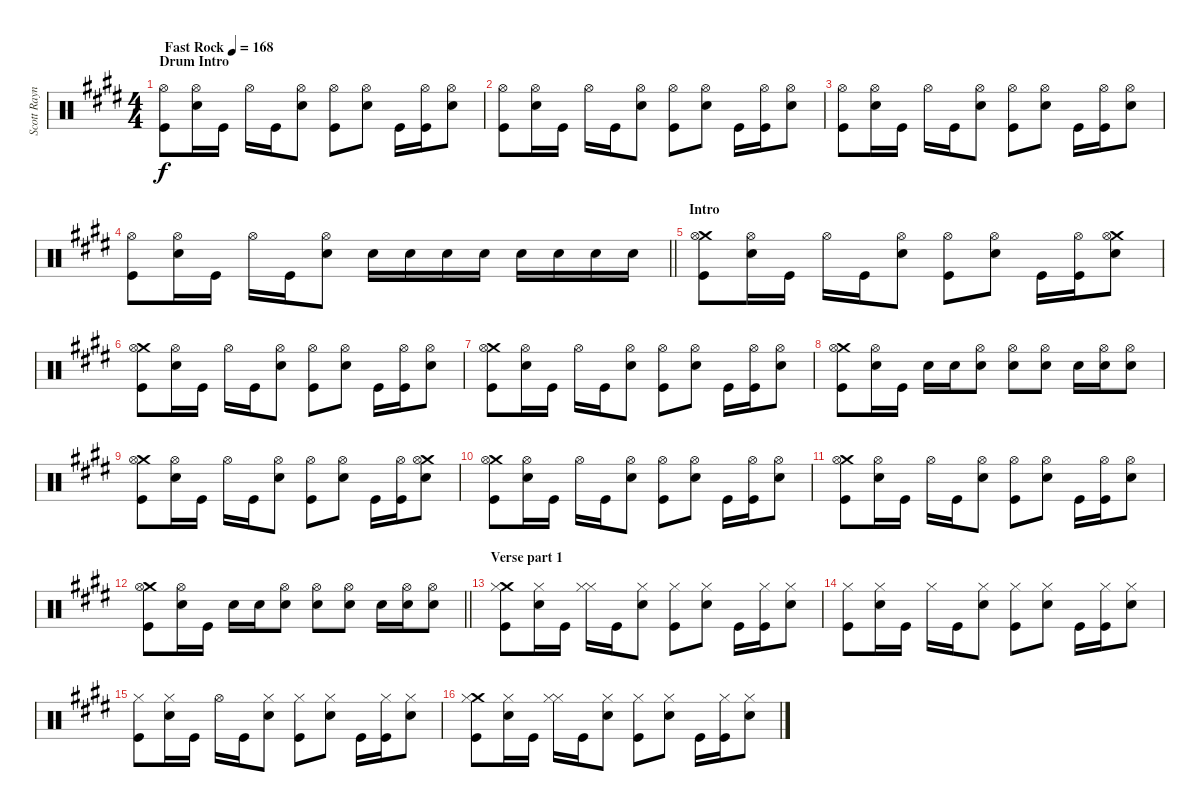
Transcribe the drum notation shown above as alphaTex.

\track ("Scott Raynor" "Scott Rayn") {instrument percussion}
\staff {score}
\articulation defaults
\ts (4 4)
\section ("" "Drum Intro")
\tempo (168 "Fast Rock")
\clef neutral
\ks e
("Hi-Hat (open)" "Kick (hit)").8{dy f} ("Hi-Hat (open)" "Electric Snare (hit)").16 "Kick (hit)".16 "Hi-Hat (open)".16 "Kick (hit)".16 ("Hi-Hat (open)" "Electric Snare (hit)").8 ("Hi-Hat (open)" "Kick (hit)").8 ("Hi-Hat (open)" "Electric Snare (hit)").8 "Kick (hit)".16 ("Hi-Hat (open)" "Kick (hit)").16 ("Hi-Hat (open)" "Electric Snare (hit)").8 |
("Hi-Hat (open)" "Kick (hit)").8 ("Hi-Hat (open)" "Electric Snare (hit)").16 "Kick (hit)".16 "Hi-Hat (open)".16 "Kick (hit)".16 ("Hi-Hat (open)" "Electric Snare (hit)").8 ("Hi-Hat (open)" "Kick (hit)").8 ("Hi-Hat (open)" "Electric Snare (hit)").8 "Kick (hit)".16 ("Hi-Hat (open)" "Kick (hit)").16 ("Hi-Hat (open)" "Electric Snare (hit)").8 |
("Hi-Hat (open)" "Kick (hit)").8 ("Hi-Hat (open)" "Electric Snare (hit)").16 "Kick (hit)".16 "Hi-Hat (open)".16 "Kick (hit)".16 ("Hi-Hat (open)" "Electric Snare (hit)").8 ("Hi-Hat (open)" "Kick (hit)").8 ("Hi-Hat (open)" "Electric Snare (hit)").8 "Kick (hit)".16 ("Hi-Hat (open)" "Kick (hit)").16 ("Hi-Hat (open)" "Electric Snare (hit)").8 |
\barLineRight lightlight
("Hi-Hat (open)" "Kick (hit)").8 ("Hi-Hat (open)" "Electric Snare (hit)").16 "Kick (hit)".16 "Hi-Hat (open)".16 "Kick (hit)".16 ("Hi-Hat (open)" "Electric Snare (hit)").8 "Electric Snare (hit)".16 "Electric Snare (hit)".16 "Electric Snare (hit)".16 "Electric Snare (hit)".16 "Electric Snare (hit)".16 "Electric Snare (hit)".16 "Electric Snare (hit)".16 "Electric Snare (hit)".16 |
\section ("" "Intro")
("Crash medium (hit)" "Hi-Hat (open)" "Kick (hit)").8 ("Hi-Hat (open)" "Electric Snare (hit)").16 "Kick (hit)".16 "Hi-Hat (open)".16 "Kick (hit)".16 ("Hi-Hat (open)" "Electric Snare (hit)").8 ("Hi-Hat (open)" "Kick (hit)").8 ("Hi-Hat (open)" "Electric Snare (hit)").8 "Kick (hit)".16 ("Hi-Hat (open)" "Kick (hit)").16 ("Crash medium (hit)" "Hi-Hat (open)" "Electric Snare (hit)").8 |
("Crash medium (hit)" "Hi-Hat (open)" "Kick (hit)").8 ("Hi-Hat (open)" "Electric Snare (hit)").16 "Kick (hit)".16 "Hi-Hat (open)".16 "Kick (hit)".16 ("Hi-Hat (open)" "Electric Snare (hit)").8 ("Hi-Hat (open)" "Kick (hit)").8 ("Hi-Hat (open)" "Electric Snare (hit)").8 "Kick (hit)".16 ("Hi-Hat (open)" "Kick (hit)").16 ("Hi-Hat (open)" "Electric Snare (hit)").8 |
("Crash medium (hit)" "Hi-Hat (open)" "Kick (hit)").8 ("Hi-Hat (open)" "Electric Snare (hit)").16 "Kick (hit)".16 "Hi-Hat (open)".16 "Kick (hit)".16 ("Hi-Hat (open)" "Electric Snare (hit)").8 ("Hi-Hat (open)" "Kick (hit)").8 ("Hi-Hat (open)" "Electric Snare (hit)").8 "Kick (hit)".16 ("Hi-Hat (open)" "Kick (hit)").16 ("Hi-Hat (open)" "Electric Snare (hit)").8 |
("Crash medium (hit)" "Hi-Hat (open)" "Kick (hit)").8 ("Hi-Hat (open)" "Electric Snare (hit)").16 "Kick (hit)".16 "Electric Snare (hit)".16 "Electric Snare (hit)".16 ("Hi-Hat (open)" "Electric Snare (hit)").8 ("Hi-Hat (open)" "Electric Snare (hit)").8 ("Hi-Hat (open)" "Electric Snare (hit)").8 "Electric Snare (hit)".16 ("Hi-Hat (open)" "Electric Snare (hit)").16 ("Hi-Hat (open)" "Electric Snare (hit)").8 |
("Crash medium (hit)" "Hi-Hat (open)" "Kick (hit)").8 ("Hi-Hat (open)" "Electric Snare (hit)").16 "Kick (hit)".16 "Hi-Hat (open)".16 "Kick (hit)".16 ("Hi-Hat (open)" "Electric Snare (hit)").8 ("Hi-Hat (open)" "Kick (hit)").8 ("Hi-Hat (open)" "Electric Snare (hit)").8 "Kick (hit)".16 ("Hi-Hat (open)" "Kick (hit)").16 ("Crash medium (hit)" "Hi-Hat (open)" "Electric Snare (hit)").8 |
("Crash medium (hit)" "Hi-Hat (open)" "Kick (hit)").8 ("Hi-Hat (open)" "Electric Snare (hit)").16 "Kick (hit)".16 "Hi-Hat (open)".16 "Kick (hit)".16 ("Hi-Hat (open)" "Electric Snare (hit)").8 ("Hi-Hat (open)" "Kick (hit)").8 ("Hi-Hat (open)" "Electric Snare (hit)").8 "Kick (hit)".16 ("Hi-Hat (open)" "Kick (hit)").16 ("Hi-Hat (open)" "Electric Snare (hit)").8 |
("Crash medium (hit)" "Hi-Hat (open)" "Kick (hit)").8 ("Hi-Hat (open)" "Electric Snare (hit)").16 "Kick (hit)".16 "Hi-Hat (open)".16 "Kick (hit)".16 ("Hi-Hat (open)" "Electric Snare (hit)").8 ("Hi-Hat (open)" "Kick (hit)").8 ("Hi-Hat (open)" "Electric Snare (hit)").8 "Kick (hit)".16 ("Hi-Hat (open)" "Kick (hit)").16 ("Hi-Hat (open)" "Electric Snare (hit)").8 |
\barLineRight lightlight
("Crash medium (hit)" "Hi-Hat (open)" "Kick (hit)").8 ("Hi-Hat (open)" "Electric Snare (hit)").16 "Kick (hit)".16 "Electric Snare (hit)".16 "Electric Snare (hit)".16 ("Hi-Hat (open)" "Electric Snare (hit)").8 ("Hi-Hat (open)" "Electric Snare (hit)").8 ("Hi-Hat (open)" "Electric Snare (hit)").8 "Electric Snare (hit)".16 ("Hi-Hat (open)" "Electric Snare (hit)").16 ("Hi-Hat (open)" "Electric Snare (hit)").8 |
\section ("" "Verse part 1")
("Crash medium (hit)" "Hi-Hat (closed)" "Kick (hit)").8 ("Hi-Hat (closed)" "Electric Snare (hit)").16 "Kick (hit)".16 ("Hi-Hat (closed)" "Hi-Hat (closed)").16 "Kick (hit)".16 ("Hi-Hat (closed)" "Electric Snare (hit)").8 ("Hi-Hat (closed)" "Kick (hit)").8 ("Hi-Hat (closed)" "Electric Snare (hit)").8 "Kick (hit)".16 ("Hi-Hat (closed)" "Kick (hit)").16 ("Hi-Hat (closed)" "Electric Snare (hit)").8 |
("Hi-Hat (closed)" "Kick (hit)").8 ("Hi-Hat (closed)" "Electric Snare (hit)").16 "Kick (hit)".16 "Hi-Hat (closed)".16 "Kick (hit)".16 ("Hi-Hat (closed)" "Electric Snare (hit)").8 ("Hi-Hat (closed)" "Kick (hit)").8 ("Hi-Hat (closed)" "Electric Snare (hit)").8 "Kick (hit)".16 ("Hi-Hat (closed)" "Kick (hit)").16 ("Hi-Hat (closed)" "Electric Snare (hit)").8 |
("Hi-Hat (closed)" "Kick (hit)").8 ("Hi-Hat (closed)" "Electric Snare (hit)").16 "Kick (hit)".16 "Hi-Hat (open)".16 "Kick (hit)".16 ("Hi-Hat (closed)" "Electric Snare (hit)").8 ("Hi-Hat (closed)" "Kick (hit)").8 ("Hi-Hat (closed)" "Electric Snare (hit)").8 "Kick (hit)".16 ("Hi-Hat (closed)" "Kick (hit)").16 ("Hi-Hat (closed)" "Electric Snare (hit)").8 |
("Crash medium (hit)" "Hi-Hat (closed)" "Kick (hit)").8 ("Hi-Hat (closed)" "Electric Snare (hit)").16 "Kick (hit)".16 ("Hi-Hat (closed)" "Hi-Hat (closed)").16 "Kick (hit)".16 ("Hi-Hat (closed)" "Electric Snare (hit)").8 ("Hi-Hat (closed)" "Kick (hit)").8 ("Hi-Hat (closed)" "Electric Snare (hit)").8 "Kick (hit)".16 ("Hi-Hat (closed)" "Kick (hit)").16 ("Hi-Hat (closed)" "Electric Snare (hit)").8
